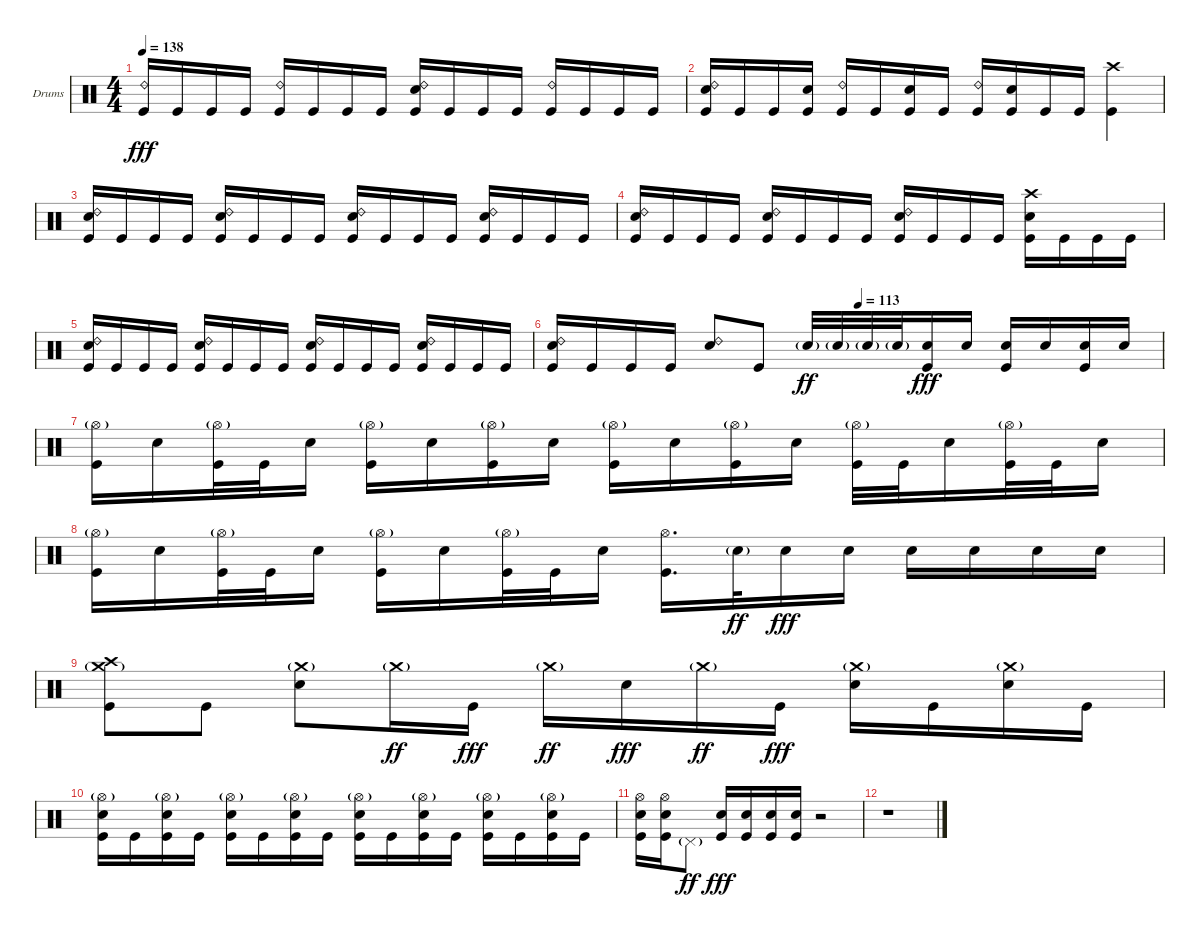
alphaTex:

\bracketExtendMode groupsimilarinstruments
\firstSystemTrackNameOrientation horizontal
\otherSystemsTrackNameOrientation horizontal
\track ("Drumkit" "Drums") {instrument percussion}
\staff {score}
\articulation defaults
\ts (4 4)
\tempo 138
\clef neutral
\ks c
("Ride (bell) 2" "Kick (hit)").16{dy fff} "Kick (hit)".16 "Kick (hit)".16 "Kick (hit)".16 ("Ride (bell) 2" "Kick (hit)").16 "Kick (hit)".16 "Kick (hit)".16 "Kick (hit)".16 ("Ride (bell) 2" "Snare (hit) 2" "Kick (hit)").16 "Kick (hit)".16 "Kick (hit)".16 "Kick (hit)".16 ("Ride (bell) 2" "Kick (hit)").16 "Kick (hit)".16 "Kick (hit)".16 "Kick (hit)".16 |
("Ride (bell) 2" "Snare (hit) 2" "Kick (hit)").16 "Kick (hit)".16 "Kick (hit)".16 ("Snare (hit) 2" "Kick (hit)").16 ("Ride (bell) 2" "Kick (hit)").16 "Kick (hit)".16 ("Snare (hit) 2" "Kick (hit)").16 "Kick (hit)".16 ("Ride (bell) 2" "Kick (hit)").16 ("Snare (hit) 2" "Kick (hit)").16 "Kick (hit)".16 "Kick (hit)".16 ("Crash high (hit)" "Kick (hit)").4 |
("Ride (bell) 2" "Snare (hit) 2" "Kick (hit)").16 "Kick (hit)".16 "Kick (hit)".16 "Kick (hit)".16 ("Ride (bell) 2" "Snare (hit) 2" "Kick (hit)").16 "Kick (hit)".16 "Kick (hit)".16 "Kick (hit)".16 ("Ride (bell) 2" "Snare (hit) 2" "Kick (hit)").16 "Kick (hit)".16 "Kick (hit)".16 "Kick (hit)".16 ("Ride (bell) 2" "Snare (hit) 2" "Kick (hit)").16 "Kick (hit)".16 "Kick (hit)".16 "Kick (hit)".16 |
("Ride (bell) 2" "Snare (hit) 2" "Kick (hit)").16 "Kick (hit)".16 "Kick (hit)".16 "Kick (hit)".16 ("Ride (bell) 2" "Snare (hit) 2" "Kick (hit)").16 "Kick (hit)".16 "Kick (hit)".16 "Kick (hit)".16 ("Ride (bell) 2" "Snare (hit) 2" "Kick (hit)").16 "Kick (hit)".16 "Kick (hit)".16 "Kick (hit)".16 ("Crash high (hit)" "Snare (hit) 2" "Kick (hit)").16 "Kick (hit)".16 "Kick (hit)".16 "Kick (hit)".16 |
("Ride (bell) 2" "Snare (hit) 2" "Kick (hit)").16 "Kick (hit)".16 "Kick (hit)".16 "Kick (hit)".16 ("Ride (bell) 2" "Snare (hit) 2" "Kick (hit)").16 "Kick (hit)".16 "Kick (hit)".16 "Kick (hit)".16 ("Ride (bell) 2" "Snare (hit) 2" "Kick (hit)").16 "Kick (hit)".16 "Kick (hit)".16 "Kick (hit)".16 ("Ride (bell) 2" "Snare (hit) 2" "Kick (hit)").16 "Kick (hit)".16 "Kick (hit)".16 "Kick (hit)".16 |
\tempo (113 0.5)
("Ride (bell) 2" "Snare (hit) 2" "Kick (hit)").16 "Kick (hit)".16 "Kick (hit)".16 "Kick (hit)".16 ("Ride (bell) 2" "Snare (hit) 2").8 "Kick (hit)".8 "Snare (hit) 2"{g}.32{dy ff} "Snare (hit) 2"{g}.32 "Snare (hit) 2"{g}.32 "Snare (hit) 2"{g}.32 ("Snare (hit) 2" "Kick (hit)").16{dy fff} "Snare (hit) 2".16 ("Snare (hit) 2" "Kick (hit)").16 "Snare (hit) 2".16 ("Snare (hit) 2" "Kick (hit)").16 "Snare (hit) 2".16 |
("Hi-Hat (open)"{g} "Kick (hit)").16 "Snare (hit) 2".16 ("Hi-Hat (open)"{g} "Kick (hit)").32 "Kick (hit)".32 "Snare (hit) 2".16 ("Hi-Hat (open)"{g} "Kick (hit)").16 "Snare (hit) 2".16 ("Hi-Hat (open)"{g} "Kick (hit)").16 "Snare (hit) 2".16 ("Hi-Hat (open)"{g} "Kick (hit)").16 "Snare (hit) 2".16 ("Hi-Hat (open)"{g} "Kick (hit)").16 "Snare (hit) 2".16 ("Hi-Hat (open)"{g} "Kick (hit)").32 "Kick (hit)".32 "Snare (hit) 2".16 ("Hi-Hat (open)"{g} "Kick (hit)").32 "Kick (hit)".32 "Snare (hit) 2".16 |
("Hi-Hat (open)"{g} "Kick (hit)").16 "Snare (hit) 2".16 ("Hi-Hat (open)"{g} "Kick (hit)").32 "Kick (hit)".32 "Snare (hit) 2".16 ("Hi-Hat (open)"{g} "Kick (hit)").16 "Snare (hit) 2".16 ("Hi-Hat (open)"{g} "Kick (hit)").32 "Kick (hit)".32 "Snare (hit) 2".16 ("Hi-Hat (open)" "Kick (hit)").16{d} "Snare (hit) 2"{g}.32{dy ff} "Snare (hit) 2".16{dy fff} "Snare (hit) 2".16 "Snare (hit) 2".16 "Snare (hit) 2".16 "Snare (hit) 2".16 "Snare (hit) 2".16 |
("Crash medium (hit)"{g} "Crash high (hit)" "Kick (hit)").8 "Kick (hit)".8 ("Crash medium (hit)"{g} "Snare (hit) 2").8 "Crash medium (hit)"{g}.16{dy ff} "Kick (hit)".16{dy fff} "Crash medium (hit)"{g}.16{dy ff} "Snare (hit) 2".16{dy fff} "Crash medium (hit)"{g}.16{dy ff} "Kick (hit)".16{dy fff} ("Crash medium (hit)"{g} "Snare (hit) 2").16 "Kick (hit)".16 ("Crash medium (hit)"{g} "Snare (hit) 2").16 "Kick (hit)".16 |
("Hi-Hat (open)"{g} "Snare (hit) 2" "Kick (hit)").16 "Kick (hit)".16 ("Hi-Hat (open)"{g} "Snare (hit) 2" "Kick (hit)").16 "Kick (hit)".16 ("Hi-Hat (open)"{g} "Snare (hit) 2" "Kick (hit)").16 "Kick (hit)".16 ("Hi-Hat (open)"{g} "Snare (hit) 2" "Kick (hit)").16 "Kick (hit)".16 ("Hi-Hat (open)"{g} "Snare (hit) 2" "Kick (hit)").16 "Kick (hit)".16 ("Hi-Hat (open)"{g} "Snare (hit) 2" "Kick (hit)").16 "Kick (hit)".16 ("Hi-Hat (open)"{g} "Snare (hit) 2" "Kick (hit)").16 "Kick (hit)".16 ("Hi-Hat (open)"{g} "Snare (hit) 2" "Kick (hit)").16 "Kick (hit)".16 |
("Hi-Hat (open)" "Snare (hit) 2" "Kick (hit)").16 ("Hi-Hat (open)" "Snare (hit) 2" "Kick (hit)").16 "Pedal Hi-Hat (hit)"{g}.8{dy ff} ("Snare (hit) 2" "Kick (hit)").16{dy fff} ("Snare (hit) 2" "Kick (hit)").16 ("Snare (hit) 2" "Kick (hit)").16 ("Snare (hit) 2" "Kick (hit)").16 r.2 |
r.1
